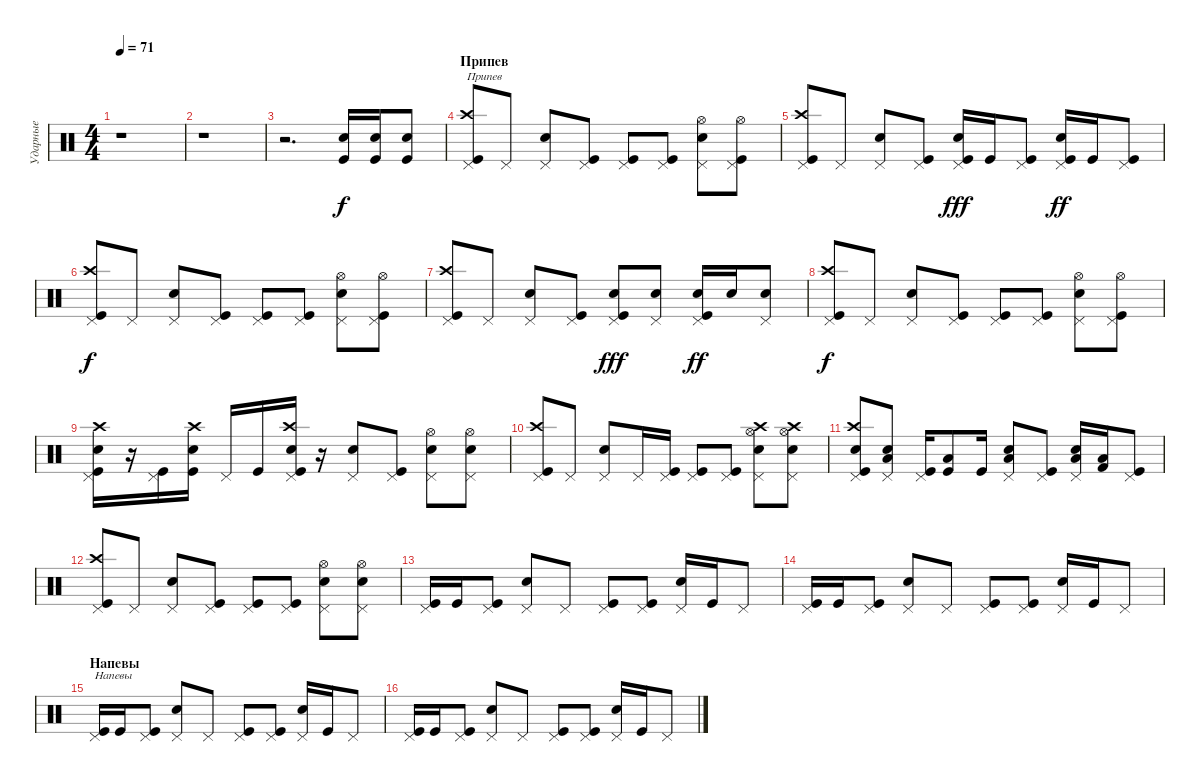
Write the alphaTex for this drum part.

\track ("Ударные" "Ударные") {instrument percussion}
\staff {score}
\articulation defaults
\ts (4 4)
\tempo 71
\clef neutral
\ks c
r.1{dy f} |
r.1 |
r.2{d} ("Snare (hit) 2" "Kick (hit)").16 ("Snare (hit) 2" "Kick (hit)").16 ("Snare (hit) 2" "Kick (hit)").8 |
\section ("" "Припев")
("Crash high (hit)" "Kick (hit)" "Pedal Hi-Hat (hit)").8{txt "Припев"} "Pedal Hi-Hat (hit)".8 ("Snare (hit) 2" "Pedal Hi-Hat (hit)").8 ("Kick (hit)" "Pedal Hi-Hat (hit)").8 ("Kick (hit)" "Pedal Hi-Hat (hit)").8 ("Kick (hit)" "Pedal Hi-Hat (hit)").8 ("Hi-Hat (open)" "Snare (hit) 2" "Pedal Hi-Hat (hit)").8 ("Hi-Hat (open)" "Kick (hit)" "Pedal Hi-Hat (hit)").8 |
("Crash high (hit)" "Kick (hit)" "Pedal Hi-Hat (hit)").8 "Pedal Hi-Hat (hit)".8 ("Snare (hit) 2" "Pedal Hi-Hat (hit)").8 ("Kick (hit)" "Pedal Hi-Hat (hit)").8 ("Kick (hit)" "Snare (hit) 2" "Pedal Hi-Hat (hit)").16{dy fff} "Kick (hit)".16 ("Kick (hit)" "Pedal Hi-Hat (hit)").8 ("Kick (hit)" "Snare (hit) 2" "Pedal Hi-Hat (hit)").16{dy ff} "Kick (hit)".16 ("Kick (hit)" "Pedal Hi-Hat (hit)").8 |
("Crash high (hit)" "Kick (hit)" "Pedal Hi-Hat (hit)").8{dy f} "Pedal Hi-Hat (hit)".8 ("Snare (hit) 2" "Pedal Hi-Hat (hit)").8 ("Kick (hit)" "Pedal Hi-Hat (hit)").8 ("Kick (hit)" "Pedal Hi-Hat (hit)").8 ("Kick (hit)" "Pedal Hi-Hat (hit)").8 ("Hi-Hat (open)" "Snare (hit) 2" "Pedal Hi-Hat (hit)").8 ("Hi-Hat (open)" "Kick (hit)" "Pedal Hi-Hat (hit)").8 |
("Crash high (hit)" "Kick (hit)" "Pedal Hi-Hat (hit)").8 "Pedal Hi-Hat (hit)".8 ("Snare (hit) 2" "Pedal Hi-Hat (hit)").8 ("Kick (hit)" "Pedal Hi-Hat (hit)").8 ("Kick (hit)" "Snare (hit) 2" "Pedal Hi-Hat (hit)").8{dy fff} ("Snare (hit) 2" "Pedal Hi-Hat (hit)").8 ("Kick (hit)" "Snare (hit) 2" "Pedal Hi-Hat (hit)").16{dy ff} "Snare (hit) 2".16 ("Snare (hit) 2" "Pedal Hi-Hat (hit)").8 |
("Crash high (hit)" "Kick (hit)" "Pedal Hi-Hat (hit)").8{dy f} "Pedal Hi-Hat (hit)".8 ("Snare (hit) 2" "Pedal Hi-Hat (hit)").8 ("Kick (hit)" "Pedal Hi-Hat (hit)").8 ("Kick (hit)" "Pedal Hi-Hat (hit)").8 ("Kick (hit)" "Pedal Hi-Hat (hit)").8 ("Hi-Hat (open)" "Snare (hit) 2" "Pedal Hi-Hat (hit)").8 ("Hi-Hat (open)" "Kick (hit)" "Pedal Hi-Hat (hit)").8 |
("Crash high (hit)" "Snare (hit) 2" "Kick (hit)" "Pedal Hi-Hat (hit)").16 r.16 ("Kick (hit)" "Pedal Hi-Hat (hit)").16 ("Crash high (hit)" "Snare (hit) 2" "Kick (hit)").16 "Pedal Hi-Hat (hit)".16 "Kick (hit)".16 ("Crash high (hit)" "Snare (hit) 2" "Kick (hit)" "Pedal Hi-Hat (hit)").16 r.16 ("Snare (hit) 2" "Pedal Hi-Hat (hit)").8 ("Kick (hit)" "Pedal Hi-Hat (hit)").8 ("Snare (hit) 2" "Hi-Hat (open)" "Pedal Hi-Hat (hit)").8 ("Snare (hit) 2" "Hi-Hat (open)" "Pedal Hi-Hat (hit)").8 |
("Kick (hit)" "Crash high (hit)" "Pedal Hi-Hat (hit)").8 "Pedal Hi-Hat (hit)".8 ("Snare (hit) 2" "Pedal Hi-Hat (hit)").8 "Pedal Hi-Hat (hit)".16 ("Kick (hit)" "Pedal Hi-Hat (hit)").16 ("Kick (hit)" "Pedal Hi-Hat (hit)").8 ("Kick (hit)" "Pedal Hi-Hat (hit)").8 ("Snare (hit) 2" "Crash high (hit)" "Hi-Hat (open)" "Pedal Hi-Hat (hit)").8 ("Snare (hit) 2" "Crash high (hit)" "Hi-Hat (open)" "Pedal Hi-Hat (hit)").8 |
("Crash high (hit)" "Snare (hit) 2" "Kick (hit)" "Pedal Hi-Hat (hit)").8 ("Snare (hit) 2" "Low Tom (hit)" "Pedal Hi-Hat (hit)").8 ("Kick (hit)" "Pedal Hi-Hat (hit)").16 ("Kick (hit)" "Low Tom (hit)").8 "Kick (hit)".16 ("Snare (hit) 2" "Low Tom (hit)" "Pedal Hi-Hat (hit)").8 ("Kick (hit)" "Pedal Hi-Hat (hit)").8 ("Snare (hit) 2" "Low Tom (hit)" "Pedal Hi-Hat (hit)").16 ("Kick (hit) 2" "Low Tom (hit)").16 ("Kick (hit)" "Pedal Hi-Hat (hit)").8 |
("Crash high (hit)" "Kick (hit)" "Pedal Hi-Hat (hit)").8 "Pedal Hi-Hat (hit)".8 ("Snare (hit) 2" "Pedal Hi-Hat (hit)").8 ("Kick (hit)" "Pedal Hi-Hat (hit)").8 ("Kick (hit)" "Pedal Hi-Hat (hit)").8 ("Kick (hit)" "Pedal Hi-Hat (hit)").8 ("Hi-Hat (open)" "Snare (hit) 2" "Pedal Hi-Hat (hit)").8 ("Hi-Hat (open)" "Snare (hit) 2" "Pedal Hi-Hat (hit)").8 |
("Kick (hit)" "Pedal Hi-Hat (hit)").16 "Kick (hit)".16 ("Kick (hit)" "Pedal Hi-Hat (hit)").8 ("Snare (hit) 2" "Pedal Hi-Hat (hit)").8 "Pedal Hi-Hat (hit)".8 ("Kick (hit)" "Pedal Hi-Hat (hit)").8 ("Kick (hit)" "Pedal Hi-Hat (hit)").8 ("Snare (hit) 2" "Pedal Hi-Hat (hit)").16 "Kick (hit)".16 "Pedal Hi-Hat (hit)".8 |
("Kick (hit)" "Pedal Hi-Hat (hit)").16 "Kick (hit)".16 ("Kick (hit)" "Pedal Hi-Hat (hit)").8 ("Snare (hit) 2" "Pedal Hi-Hat (hit)").8 "Pedal Hi-Hat (hit)".8 ("Kick (hit)" "Pedal Hi-Hat (hit)").8 ("Kick (hit)" "Pedal Hi-Hat (hit)").8 ("Snare (hit) 2" "Pedal Hi-Hat (hit)").16 "Kick (hit)".16 "Pedal Hi-Hat (hit)".8 |
\section ("" "Напевы")
("Kick (hit)" "Pedal Hi-Hat (hit)").16{txt "Напевы"} "Kick (hit)".16 ("Kick (hit)" "Pedal Hi-Hat (hit)").8 ("Snare (hit) 2" "Pedal Hi-Hat (hit)").8 "Pedal Hi-Hat (hit)".8 ("Kick (hit)" "Pedal Hi-Hat (hit)").8 ("Kick (hit)" "Pedal Hi-Hat (hit)").8 ("Snare (hit) 2" "Pedal Hi-Hat (hit)").16 "Kick (hit)".16 "Pedal Hi-Hat (hit)".8 |
("Kick (hit)" "Pedal Hi-Hat (hit)").16 "Kick (hit)".16 ("Kick (hit)" "Pedal Hi-Hat (hit)").8 ("Snare (hit) 2" "Pedal Hi-Hat (hit)").8 "Pedal Hi-Hat (hit)".8 ("Kick (hit)" "Pedal Hi-Hat (hit)").8 ("Kick (hit)" "Pedal Hi-Hat (hit)").8 ("Snare (hit) 2" "Pedal Hi-Hat (hit)").16 "Kick (hit)".16 "Pedal Hi-Hat (hit)".8
